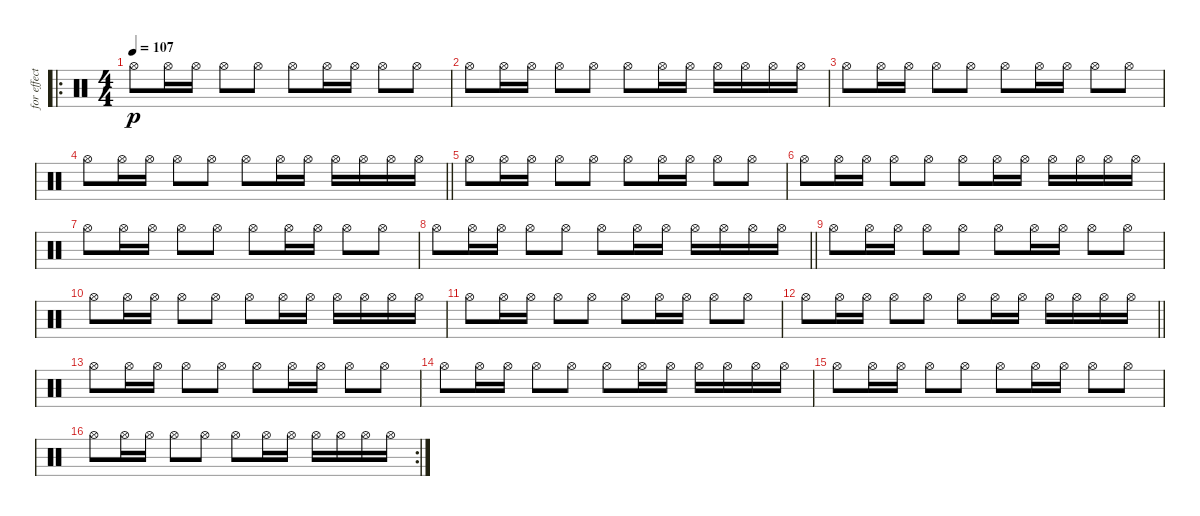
\track ("for effect" "for effect") {instrument percussion}
\staff {score}
\articulation defaults
\ro
\ts (4 4)
\tempo 107
\clef neutral
\ks c "Hi-Hat (open)".8{dy p} "Hi-Hat (open)".16 "Hi-Hat (open)".16 "Hi-Hat (open)".8 "Hi-Hat (open)".8 "Hi-Hat (open)".8 "Hi-Hat (open)".16 "Hi-Hat (open)".16 "Hi-Hat (open)".8 "Hi-Hat (open)".8
|
"Hi-Hat (open)".8 "Hi-Hat (open)".16 "Hi-Hat (open)".16 "Hi-Hat (open)".8 "Hi-Hat (open)".8 "Hi-Hat (open)".8 "Hi-Hat (open)".16 "Hi-Hat (open)".16 "Hi-Hat (open)".16 "Hi-Hat (open)".16 "Hi-Hat (open)".16 "Hi-Hat (open)".16 |
"Hi-Hat (open)".8 "Hi-Hat (open)".16 "Hi-Hat (open)".16 "Hi-Hat (open)".8 "Hi-Hat (open)".8 "Hi-Hat (open)".8 "Hi-Hat (open)".16 "Hi-Hat (open)".16 "Hi-Hat (open)".8 "Hi-Hat (open)".8 |
\barLineRight lightlight "Hi-Hat (open)".8 "Hi-Hat (open)".16 "Hi-Hat (open)".16 "Hi-Hat (open)".8 "Hi-Hat (open)".8 "Hi-Hat (open)".8 "Hi-Hat (open)".16 "Hi-Hat (open)".16 "Hi-Hat (open)".16 "Hi-Hat (open)".16 "Hi-Hat (open)".16 "Hi-Hat (open)".16
|
"Hi-Hat (open)".8 "Hi-Hat (open)".16 "Hi-Hat (open)".16 "Hi-Hat (open)".8 "Hi-Hat (open)".8 "Hi-Hat (open)".8 "Hi-Hat (open)".16 "Hi-Hat (open)".16 "Hi-Hat (open)".8 "Hi-Hat (open)".8 |
"Hi-Hat (open)".8 "Hi-Hat (open)".16 "Hi-Hat (open)".16 "Hi-Hat (open)".8 "Hi-Hat (open)".8 "Hi-Hat (open)".8 "Hi-Hat (open)".16 "Hi-Hat (open)".16 "Hi-Hat (open)".16 "Hi-Hat (open)".16 "Hi-Hat (open)".16 "Hi-Hat (open)".16 |
"Hi-Hat (open)".8 "Hi-Hat (open)".16 "Hi-Hat (open)".16 "Hi-Hat (open)".8 "Hi-Hat (open)".8 "Hi-Hat (open)".8 "Hi-Hat (open)".16 "Hi-Hat (open)".16 "Hi-Hat (open)".8 "Hi-Hat (open)".8 |
\barLineRight lightlight "Hi-Hat (open)".8 "Hi-Hat (open)".16 "Hi-Hat (open)".16 "Hi-Hat (open)".8 "Hi-Hat (open)".8 "Hi-Hat (open)".8 "Hi-Hat (open)".16 "Hi-Hat (open)".16 "Hi-Hat (open)".16 "Hi-Hat (open)".16 "Hi-Hat (open)".16 "Hi-Hat (open)".16
|
"Hi-Hat (open)".8 "Hi-Hat (open)".16 "Hi-Hat (open)".16 "Hi-Hat (open)".8 "Hi-Hat (open)".8 "Hi-Hat (open)".8 "Hi-Hat (open)".16 "Hi-Hat (open)".16 "Hi-Hat (open)".8 "Hi-Hat (open)".8 |
"Hi-Hat (open)".8 "Hi-Hat (open)".16 "Hi-Hat (open)".16 "Hi-Hat (open)".8 "Hi-Hat (open)".8 "Hi-Hat (open)".8 "Hi-Hat (open)".16 "Hi-Hat (open)".16 "Hi-Hat (open)".16 "Hi-Hat (open)".16 "Hi-Hat (open)".16 "Hi-Hat (open)".16 |
"Hi-Hat (open)".8 "Hi-Hat (open)".16 "Hi-Hat (open)".16 "Hi-Hat (open)".8 "Hi-Hat (open)".8 "Hi-Hat (open)".8 "Hi-Hat (open)".16 "Hi-Hat (open)".16 "Hi-Hat (open)".8 "Hi-Hat (open)".8 |
\barLineRight lightlight "Hi-Hat (open)".8 "Hi-Hat (open)".16 "Hi-Hat (open)".16 "Hi-Hat (open)".8 "Hi-Hat (open)".8 "Hi-Hat (open)".8 "Hi-Hat (open)".16 "Hi-Hat (open)".16 "Hi-Hat (open)".16 "Hi-Hat (open)".16 "Hi-Hat (open)".16 "Hi-Hat (open)".16
|
"Hi-Hat (open)".8 "Hi-Hat (open)".16 "Hi-Hat (open)".16 "Hi-Hat (open)".8 "Hi-Hat (open)".8 "Hi-Hat (open)".8 "Hi-Hat (open)".16 "Hi-Hat (open)".16 "Hi-Hat (open)".8 "Hi-Hat (open)".8 |
"Hi-Hat (open)".8 "Hi-Hat (open)".16 "Hi-Hat (open)".16 "Hi-Hat (open)".8 "Hi-Hat (open)".8 "Hi-Hat (open)".8 "Hi-Hat (open)".16 "Hi-Hat (open)".16 "Hi-Hat (open)".16 "Hi-Hat (open)".16 "Hi-Hat (open)".16 "Hi-Hat (open)".16 |
"Hi-Hat (open)".8 "Hi-Hat (open)".16 "Hi-Hat (open)".16 "Hi-Hat (open)".8 "Hi-Hat (open)".8 "Hi-Hat (open)".8 "Hi-Hat (open)".16 "Hi-Hat (open)".16 "Hi-Hat (open)".8 "Hi-Hat (open)".8 |
\rc 2 "Hi-Hat (open)".8 "Hi-Hat (open)".16 "Hi-Hat (open)".16 "Hi-Hat (open)".8 "Hi-Hat (open)".8 "Hi-Hat (open)".8 "Hi-Hat (open)".16 "Hi-Hat (open)".16 "Hi-Hat (open)".16 "Hi-Hat (open)".16 "Hi-Hat (open)".16 "Hi-Hat (open)".16
